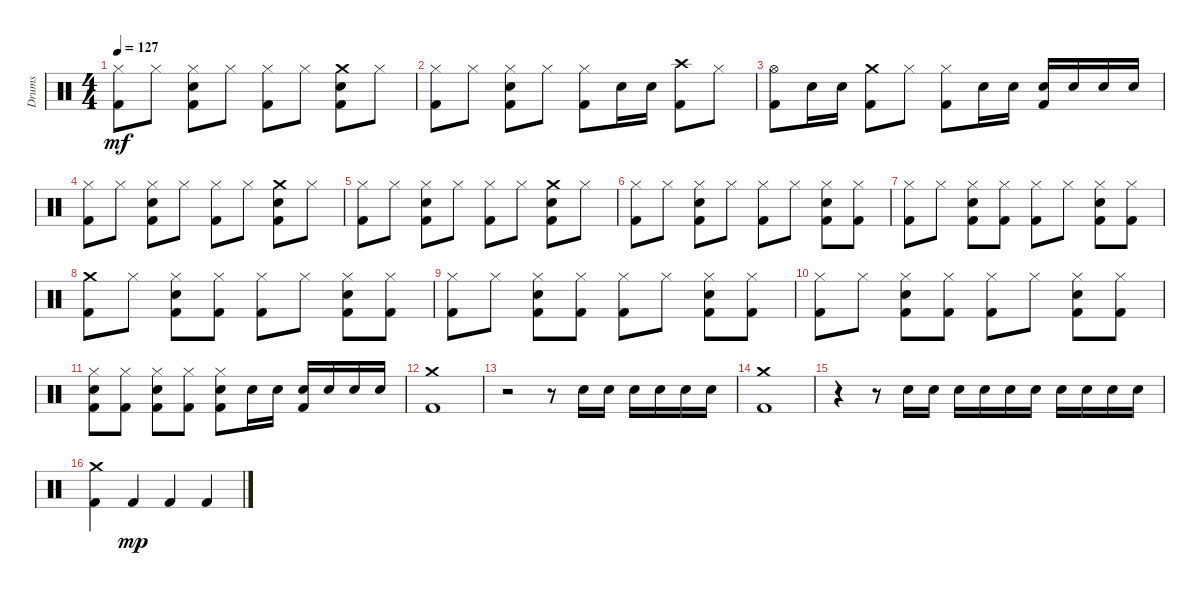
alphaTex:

\track ("Drums" "Drums") {instrument percussion}
\staff {score}
\articulation defaults
\ts (4 4)
\tempo 127
\clef neutral
\ks c
("Hi-Hat (closed)" "Kick (hit) 2").8{dy mf} "Hi-Hat (closed)".8 ("Hi-Hat (closed)" "Electric Snare (hit)" "Kick (hit) 2").8 "Hi-Hat (closed)".8 ("Hi-Hat (closed)" "Kick (hit) 2").8 "Hi-Hat (closed)".8 ("Crash medium (hit)" "Electric Snare (hit)" "Kick (hit) 2").8 "Hi-Hat (closed)".8 |
("Hi-Hat (closed)" "Kick (hit) 2").8 "Hi-Hat (closed)".8 ("Hi-Hat (closed)" "Electric Snare (hit)" "Kick (hit) 2").8 "Hi-Hat (closed)".8 ("Hi-Hat (closed)" "Kick (hit) 2").8 "Electric Snare (hit)".16 "Electric Snare (hit)".16 ("Crash high (hit)" "Kick (hit) 2").8 "Hi-Hat (closed)".8 |
("Hi-Hat (open)" "Kick (hit) 2").8 "Electric Snare (hit)".16 "Electric Snare (hit)".16 ("Crash medium (hit)" "Kick (hit) 2").8 "Hi-Hat (closed)".8 ("Hi-Hat (closed)" "Kick (hit) 2").8 "Electric Snare (hit)".16 "Electric Snare (hit)".16 ("Electric Snare (hit)" "Kick (hit) 2").16 "Electric Snare (hit)".16 "Electric Snare (hit)".16 "Electric Snare (hit)".16 |
("Hi-Hat (closed)" "Kick (hit) 2").8 "Hi-Hat (closed)".8 ("Hi-Hat (closed)" "Electric Snare (hit)" "Kick (hit) 2").8 "Hi-Hat (closed)".8 ("Hi-Hat (closed)" "Kick (hit) 2").8 "Hi-Hat (closed)".8 ("Crash medium (hit)" "Electric Snare (hit)" "Kick (hit) 2").8 "Hi-Hat (closed)".8 |
("Hi-Hat (closed)" "Kick (hit) 2").8 "Hi-Hat (closed)".8 ("Hi-Hat (closed)" "Electric Snare (hit)" "Kick (hit) 2").8 "Hi-Hat (closed)".8 ("Hi-Hat (closed)" "Kick (hit) 2").8 "Hi-Hat (closed)".8 ("Crash medium (hit)" "Electric Snare (hit)" "Kick (hit) 2").8 "Hi-Hat (closed)".8 |
("Hi-Hat (closed)" "Kick (hit) 2").8 "Hi-Hat (closed)".8 ("Hi-Hat (closed)" "Electric Snare (hit)" "Kick (hit) 2").8 "Hi-Hat (closed)".8 ("Hi-Hat (closed)" "Kick (hit) 2").8 "Hi-Hat (closed)".8 ("Hi-Hat (closed)" "Electric Snare (hit)" "Kick (hit) 2").8 ("Hi-Hat (closed)" "Kick (hit) 2").8 |
("Hi-Hat (closed)" "Kick (hit) 2").8 "Hi-Hat (closed)".8 ("Hi-Hat (closed)" "Electric Snare (hit)" "Kick (hit) 2").8 ("Hi-Hat (closed)" "Kick (hit) 2").8 ("Hi-Hat (closed)" "Kick (hit) 2").8 "Hi-Hat (closed)".8 ("Hi-Hat (closed)" "Electric Snare (hit)" "Kick (hit) 2").8 ("Hi-Hat (closed)" "Kick (hit) 2").8 |
("Crash medium (hit)" "Kick (hit) 2").8 "Hi-Hat (closed)".8 ("Hi-Hat (closed)" "Electric Snare (hit)" "Kick (hit) 2").8 ("Hi-Hat (closed)" "Kick (hit) 2").8 ("Hi-Hat (closed)" "Kick (hit) 2").8 "Hi-Hat (closed)".8 ("Hi-Hat (closed)" "Electric Snare (hit)" "Kick (hit) 2").8 ("Hi-Hat (closed)" "Kick (hit) 2").8 |
("Hi-Hat (closed)" "Kick (hit) 2").8 "Hi-Hat (closed)".8 ("Hi-Hat (closed)" "Electric Snare (hit)" "Kick (hit) 2").8 ("Hi-Hat (closed)" "Kick (hit) 2").8 ("Hi-Hat (closed)" "Kick (hit) 2").8 "Hi-Hat (closed)".8 ("Hi-Hat (closed)" "Electric Snare (hit)" "Kick (hit) 2").8 ("Hi-Hat (closed)" "Kick (hit) 2").8 |
("Hi-Hat (closed)" "Kick (hit) 2").8 "Hi-Hat (closed)".8 ("Hi-Hat (closed)" "Electric Snare (hit)" "Kick (hit) 2").8 ("Hi-Hat (closed)" "Kick (hit) 2").8 ("Hi-Hat (closed)" "Kick (hit) 2").8 "Hi-Hat (closed)".8 ("Hi-Hat (closed)" "Electric Snare (hit)" "Kick (hit) 2").8 ("Hi-Hat (closed)" "Kick (hit) 2").8 |
("Hi-Hat (closed)" "Electric Snare (hit)" "Kick (hit) 2").8 ("Hi-Hat (closed)" "Kick (hit) 2").8 ("Hi-Hat (closed)" "Electric Snare (hit)" "Kick (hit) 2").8 ("Hi-Hat (closed)" "Kick (hit) 2").8 ("Hi-Hat (closed)" "Electric Snare (hit)" "Kick (hit) 2").8 "Electric Snare (hit)".16 "Electric Snare (hit)".16 ("Electric Snare (hit)" "Kick (hit) 2").16 "Electric Snare (hit)".16 "Electric Snare (hit)".16 "Electric Snare (hit)".16 |
("Crash medium (hit)" "Kick (hit) 2").1 |
r.2 r.8 "Electric Snare (hit)".16 "Electric Snare (hit)".16 "Electric Snare (hit)".16 "Electric Snare (hit)".16 "Electric Snare (hit)".16 "Electric Snare (hit)".16 |
("Crash medium (hit)" "Kick (hit) 2").1 |
r.4 r.8 "Electric Snare (hit)".16 "Electric Snare (hit)".16 "Electric Snare (hit)".16 "Electric Snare (hit)".16 "Electric Snare (hit)".16 "Electric Snare (hit)".16 "Electric Snare (hit)".16 "Electric Snare (hit)".16 "Electric Snare (hit)".16 "Electric Snare (hit)".16 |
("Crash medium (hit)" "Kick (hit) 2").4 "Kick (hit) 2".4{dy mp} "Kick (hit) 2".4 "Kick (hit) 2".4
